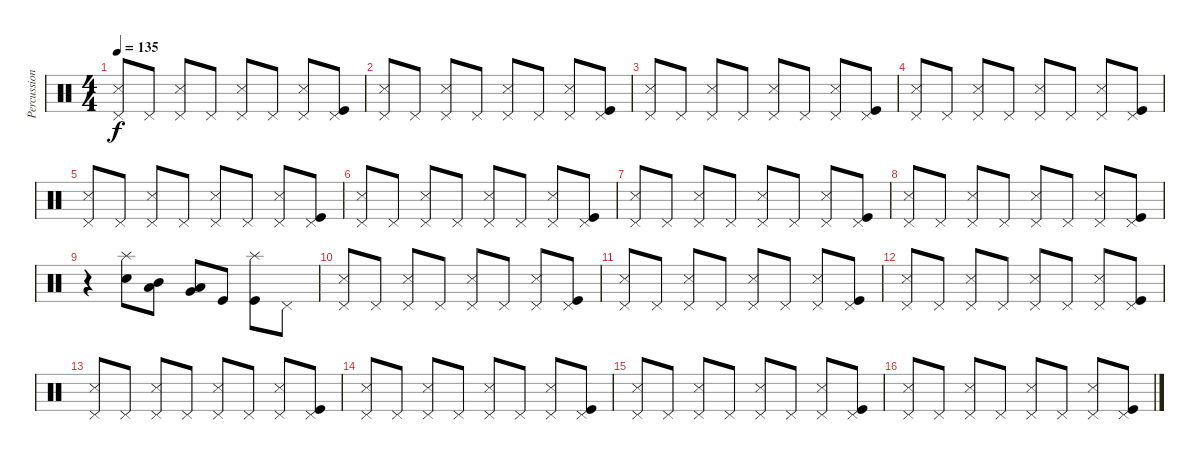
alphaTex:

\track ("Percussion" "Percussion") {instrument percussion}
\staff {score}
\articulation defaults
\ts (4 4)
\tempo 135
\clef neutral
\ks c
("Snare (side stick) 3" "Pedal Hi-Hat (hit)").8{dy f} "Pedal Hi-Hat (hit)".8 ("Snare (side stick) 3" "Pedal Hi-Hat (hit)").8 "Pedal Hi-Hat (hit)".8 ("Snare (side stick) 3" "Pedal Hi-Hat (hit)").8 "Pedal Hi-Hat (hit)".8 ("Snare (side stick) 3" "Pedal Hi-Hat (hit)").8 ("Kick (hit)" "Pedal Hi-Hat (hit)").8 |
("Snare (side stick) 3" "Pedal Hi-Hat (hit)").8 "Pedal Hi-Hat (hit)".8 ("Snare (side stick) 3" "Pedal Hi-Hat (hit)").8 "Pedal Hi-Hat (hit)".8 ("Snare (side stick) 3" "Pedal Hi-Hat (hit)").8 "Pedal Hi-Hat (hit)".8 ("Snare (side stick) 3" "Pedal Hi-Hat (hit)").8 ("Kick (hit)" "Pedal Hi-Hat (hit)").8 |
("Snare (side stick) 3" "Pedal Hi-Hat (hit)").8 "Pedal Hi-Hat (hit)".8 ("Snare (side stick) 3" "Pedal Hi-Hat (hit)").8 "Pedal Hi-Hat (hit)".8 ("Snare (side stick) 3" "Pedal Hi-Hat (hit)").8 "Pedal Hi-Hat (hit)".8 ("Snare (side stick) 3" "Pedal Hi-Hat (hit)").8 ("Kick (hit)" "Pedal Hi-Hat (hit)").8 |
("Snare (side stick) 3" "Pedal Hi-Hat (hit)").8 "Pedal Hi-Hat (hit)".8 ("Snare (side stick) 3" "Pedal Hi-Hat (hit)").8 "Pedal Hi-Hat (hit)".8 ("Snare (side stick) 3" "Pedal Hi-Hat (hit)").8 "Pedal Hi-Hat (hit)".8 ("Snare (side stick) 3" "Pedal Hi-Hat (hit)").8 ("Kick (hit)" "Pedal Hi-Hat (hit)").8 |
("Snare (side stick) 3" "Pedal Hi-Hat (hit)").8 "Pedal Hi-Hat (hit)".8 ("Snare (side stick) 3" "Pedal Hi-Hat (hit)").8 "Pedal Hi-Hat (hit)".8 ("Snare (side stick) 3" "Pedal Hi-Hat (hit)").8 "Pedal Hi-Hat (hit)".8 ("Snare (side stick) 3" "Pedal Hi-Hat (hit)").8 ("Kick (hit)" "Pedal Hi-Hat (hit)").8 |
("Snare (side stick) 3" "Pedal Hi-Hat (hit)").8 "Pedal Hi-Hat (hit)".8 ("Snare (side stick) 3" "Pedal Hi-Hat (hit)").8 "Pedal Hi-Hat (hit)".8 ("Snare (side stick) 3" "Pedal Hi-Hat (hit)").8 "Pedal Hi-Hat (hit)".8 ("Snare (side stick) 3" "Pedal Hi-Hat (hit)").8 ("Kick (hit)" "Pedal Hi-Hat (hit)").8 |
("Snare (side stick) 3" "Pedal Hi-Hat (hit)").8 "Pedal Hi-Hat (hit)".8 ("Snare (side stick) 3" "Pedal Hi-Hat (hit)").8 "Pedal Hi-Hat (hit)".8 ("Snare (side stick) 3" "Pedal Hi-Hat (hit)").8 "Pedal Hi-Hat (hit)".8 ("Snare (side stick) 3" "Pedal Hi-Hat (hit)").8 ("Kick (hit)" "Pedal Hi-Hat (hit)").8 |
("Snare (side stick) 3" "Pedal Hi-Hat (hit)").8 "Pedal Hi-Hat (hit)".8 ("Snare (side stick) 3" "Pedal Hi-Hat (hit)").8 "Pedal Hi-Hat (hit)".8 ("Snare (side stick) 3" "Pedal Hi-Hat (hit)").8 "Pedal Hi-Hat (hit)".8 ("Snare (side stick) 3" "Pedal Hi-Hat (hit)").8 ("Kick (hit)" "Pedal Hi-Hat (hit)").8 |
r.4 ("Splash (hit)" "Electric Snare (hit)").8 ("Low Tom (hit)" "Mid Tom (hit)").8 ("Very Low Tom (hit)" "Low Tom (hit)").8 "Kick (hit)".8 ("Splash (hit)" "Kick (hit)").8 "Pedal Hi-Hat (hit)".8 |
("Snare (side stick) 3" "Pedal Hi-Hat (hit)").8 "Pedal Hi-Hat (hit)".8 ("Snare (side stick) 3" "Pedal Hi-Hat (hit)").8 "Pedal Hi-Hat (hit)".8 ("Snare (side stick) 3" "Pedal Hi-Hat (hit)").8 "Pedal Hi-Hat (hit)".8 ("Snare (side stick) 3" "Pedal Hi-Hat (hit)").8 ("Kick (hit)" "Pedal Hi-Hat (hit)").8 |
("Snare (side stick) 3" "Pedal Hi-Hat (hit)").8 "Pedal Hi-Hat (hit)".8 ("Snare (side stick) 3" "Pedal Hi-Hat (hit)").8 "Pedal Hi-Hat (hit)".8 ("Snare (side stick) 3" "Pedal Hi-Hat (hit)").8 "Pedal Hi-Hat (hit)".8 ("Snare (side stick) 3" "Pedal Hi-Hat (hit)").8 ("Kick (hit)" "Pedal Hi-Hat (hit)").8 |
("Snare (side stick) 3" "Pedal Hi-Hat (hit)").8 "Pedal Hi-Hat (hit)".8 ("Snare (side stick) 3" "Pedal Hi-Hat (hit)").8 "Pedal Hi-Hat (hit)".8 ("Snare (side stick) 3" "Pedal Hi-Hat (hit)").8 "Pedal Hi-Hat (hit)".8 ("Snare (side stick) 3" "Pedal Hi-Hat (hit)").8 ("Kick (hit)" "Pedal Hi-Hat (hit)").8 |
("Snare (side stick) 3" "Pedal Hi-Hat (hit)").8 "Pedal Hi-Hat (hit)".8 ("Snare (side stick) 3" "Pedal Hi-Hat (hit)").8 "Pedal Hi-Hat (hit)".8 ("Snare (side stick) 3" "Pedal Hi-Hat (hit)").8 "Pedal Hi-Hat (hit)".8 ("Snare (side stick) 3" "Pedal Hi-Hat (hit)").8 ("Kick (hit)" "Pedal Hi-Hat (hit)").8 |
("Snare (side stick) 3" "Pedal Hi-Hat (hit)").8 "Pedal Hi-Hat (hit)".8 ("Snare (side stick) 3" "Pedal Hi-Hat (hit)").8 "Pedal Hi-Hat (hit)".8 ("Snare (side stick) 3" "Pedal Hi-Hat (hit)").8 "Pedal Hi-Hat (hit)".8 ("Snare (side stick) 3" "Pedal Hi-Hat (hit)").8 ("Kick (hit)" "Pedal Hi-Hat (hit)").8 |
("Snare (side stick) 3" "Pedal Hi-Hat (hit)").8 "Pedal Hi-Hat (hit)".8 ("Snare (side stick) 3" "Pedal Hi-Hat (hit)").8 "Pedal Hi-Hat (hit)".8 ("Snare (side stick) 3" "Pedal Hi-Hat (hit)").8 "Pedal Hi-Hat (hit)".8 ("Snare (side stick) 3" "Pedal Hi-Hat (hit)").8 ("Kick (hit)" "Pedal Hi-Hat (hit)").8 |
("Snare (side stick) 3" "Pedal Hi-Hat (hit)").8 "Pedal Hi-Hat (hit)".8 ("Snare (side stick) 3" "Pedal Hi-Hat (hit)").8 "Pedal Hi-Hat (hit)".8 ("Snare (side stick) 3" "Pedal Hi-Hat (hit)").8 "Pedal Hi-Hat (hit)".8 ("Snare (side stick) 3" "Pedal Hi-Hat (hit)").8 ("Kick (hit)" "Pedal Hi-Hat (hit)").8
